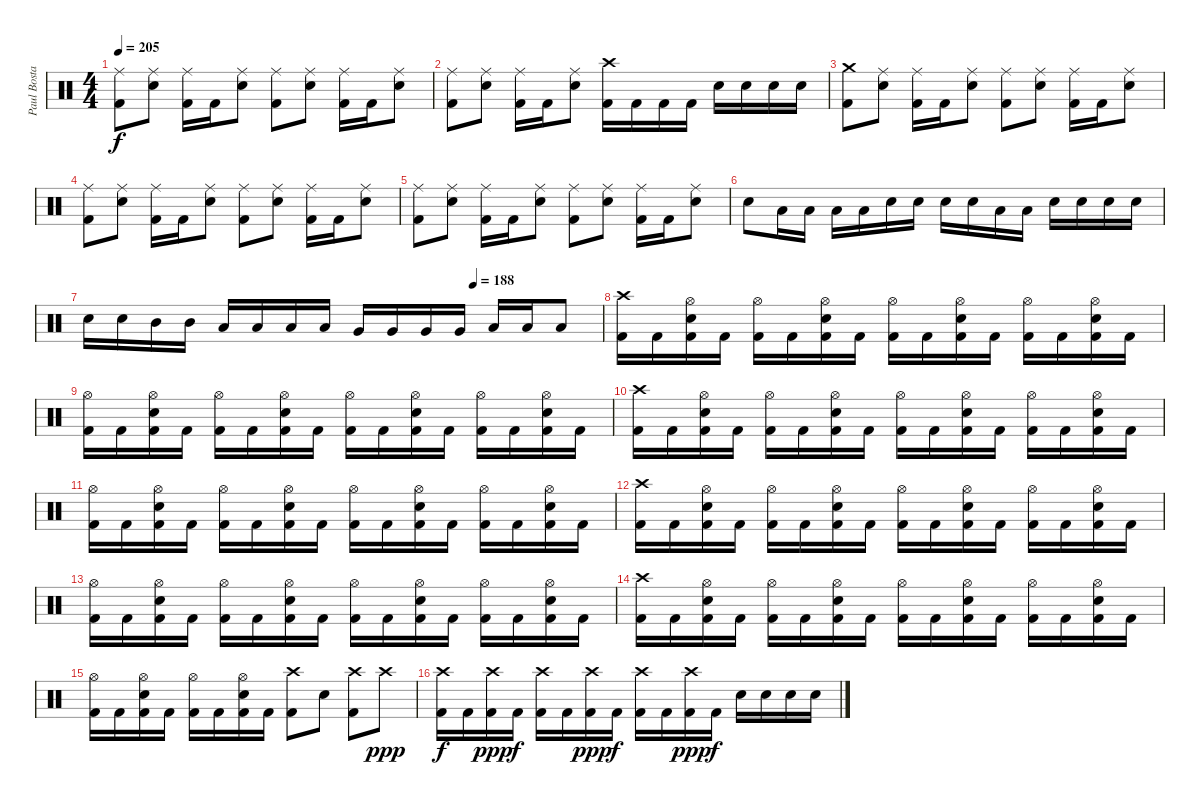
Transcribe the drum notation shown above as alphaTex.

\track ("Paul Bostaph" "Paul Bosta") {instrument percussion}
\staff {score}
\articulation defaults
\ts (4 4)
\tempo 205
\clef neutral
\ks c
("Ride (middle)" "Kick (hit) 2").8{dy f} ("Ride (middle)" "Electric Snare (hit)").8 ("Ride (middle)" "Kick (hit) 2").16 "Kick (hit) 2".16 ("Ride (middle)" "Electric Snare (hit)").8 ("Ride (middle)" "Kick (hit) 2").8 ("Ride (middle)" "Electric Snare (hit)").8 ("Ride (middle)" "Kick (hit) 2").16 "Kick (hit) 2".16 ("Ride (middle)" "Electric Snare (hit)").8 |
("Ride (middle)" "Kick (hit) 2").8 ("Ride (middle)" "Electric Snare (hit)").8 ("Ride (middle)" "Kick (hit) 2").16 "Kick (hit) 2".16 ("Ride (middle)" "Electric Snare (hit)").8 ("Crash high (hit)" "Kick (hit) 2").16 "Kick (hit) 2".16 "Kick (hit) 2".16 "Kick (hit) 2".16 "Electric Snare (hit)".16 "Electric Snare (hit)".16 "Electric Snare (hit)".16 "Electric Snare (hit)".16 |
("Crash medium (hit)" "Kick (hit) 2").8 ("Ride (middle)" "Electric Snare (hit)").8 ("Ride (middle)" "Kick (hit) 2").16 "Kick (hit) 2".16 ("Ride (middle)" "Electric Snare (hit)").8 ("Ride (middle)" "Kick (hit) 2").8 ("Ride (middle)" "Electric Snare (hit)").8 ("Ride (middle)" "Kick (hit) 2").16 "Kick (hit) 2".16 ("Ride (middle)" "Electric Snare (hit)").8 |
("Ride (middle)" "Kick (hit) 2").8 ("Ride (middle)" "Electric Snare (hit)").8 ("Ride (middle)" "Kick (hit) 2").16 "Kick (hit) 2".16 ("Ride (middle)" "Electric Snare (hit)").8 ("Ride (middle)" "Kick (hit) 2").8 ("Ride (middle)" "Electric Snare (hit)").8 ("Ride (middle)" "Kick (hit) 2").16 "Kick (hit) 2".16 ("Ride (middle)" "Electric Snare (hit)").8 |
("Ride (middle)" "Kick (hit) 2").8 ("Ride (middle)" "Electric Snare (hit)").8 ("Ride (middle)" "Kick (hit) 2").16 "Kick (hit) 2".16 ("Ride (middle)" "Electric Snare (hit)").8 ("Ride (middle)" "Kick (hit) 2").8 ("Ride (middle)" "Electric Snare (hit)").8 ("Ride (middle)" "Kick (hit) 2").16 "Kick (hit) 2".16 ("Ride (middle)" "Electric Snare (hit)").8 |
"Electric Snare (hit)".8 "Low Tom (hit)".16 "Low Tom (hit)".16 "Low Tom (hit)".16 "Low Tom (hit)".16 "Electric Snare (hit)".16 "Electric Snare (hit)".16 "Electric Snare (hit)".16 "Electric Snare (hit)".16 "Low Tom (hit)".16 "Low Tom (hit)".16 "Electric Snare (hit)".16 "Electric Snare (hit)".16 "Electric Snare (hit)".16 "Electric Snare (hit)".16 |
\tempo (188 0.75)
"Electric Snare (hit)".16 "Electric Snare (hit)".16 "Mid Tom (hit)".16 "Mid Tom (hit)".16 "Low Tom (hit)".16 "Low Tom (hit)".16 "Low Tom (hit)".16 "Low Tom (hit)".16 "Very Low Tom (hit)".16 "Very Low Tom (hit)".16 "Very Low Tom (hit)".16 "Very Low Tom (hit)".16 "Low Floor Tom (hit)".16 "Low Floor Tom (hit)".16 "Low Floor Tom (hit)".8 |
("Crash high (hit)" "Kick (hit) 2").16 "Kick (hit) 2".16 ("Electric Snare (hit)" "Hi-Hat (open)" "Kick (hit) 2").16 "Kick (hit) 2".16 ("Hi-Hat (open)" "Kick (hit) 2").16 "Kick (hit) 2".16 ("Electric Snare (hit)" "Hi-Hat (open)" "Kick (hit) 2").16 "Kick (hit) 2".16 ("Hi-Hat (open)" "Kick (hit) 2").16 "Kick (hit) 2".16 ("Electric Snare (hit)" "Hi-Hat (open)" "Kick (hit) 2").16 "Kick (hit) 2".16 ("Hi-Hat (open)" "Kick (hit) 2").16 "Kick (hit) 2".16 ("Electric Snare (hit)" "Hi-Hat (open)" "Kick (hit) 2").16 "Kick (hit) 2".16 |
("Hi-Hat (open)" "Kick (hit) 2").16 "Kick (hit) 2".16 ("Electric Snare (hit)" "Hi-Hat (open)" "Kick (hit) 2").16 "Kick (hit) 2".16 ("Hi-Hat (open)" "Kick (hit) 2").16 "Kick (hit) 2".16 ("Electric Snare (hit)" "Hi-Hat (open)" "Kick (hit) 2").16 "Kick (hit) 2".16 ("Hi-Hat (open)" "Kick (hit) 2").16 "Kick (hit) 2".16 ("Electric Snare (hit)" "Hi-Hat (open)" "Kick (hit) 2").16 "Kick (hit) 2".16 ("Hi-Hat (open)" "Kick (hit) 2").16 "Kick (hit) 2".16 ("Electric Snare (hit)" "Hi-Hat (open)" "Kick (hit) 2").16 "Kick (hit) 2".16 |
("Crash high (hit)" "Kick (hit) 2").16 "Kick (hit) 2".16 ("Electric Snare (hit)" "Hi-Hat (open)" "Kick (hit) 2").16 "Kick (hit) 2".16 ("Hi-Hat (open)" "Kick (hit) 2").16 "Kick (hit) 2".16 ("Electric Snare (hit)" "Hi-Hat (open)" "Kick (hit) 2").16 "Kick (hit) 2".16 ("Hi-Hat (open)" "Kick (hit) 2").16 "Kick (hit) 2".16 ("Electric Snare (hit)" "Hi-Hat (open)" "Kick (hit) 2").16 "Kick (hit) 2".16 ("Hi-Hat (open)" "Kick (hit) 2").16 "Kick (hit) 2".16 ("Electric Snare (hit)" "Hi-Hat (open)" "Kick (hit) 2").16 "Kick (hit) 2".16 |
("Hi-Hat (open)" "Kick (hit) 2").16 "Kick (hit) 2".16 ("Electric Snare (hit)" "Hi-Hat (open)" "Kick (hit) 2").16 "Kick (hit) 2".16 ("Hi-Hat (open)" "Kick (hit) 2").16 "Kick (hit) 2".16 ("Electric Snare (hit)" "Hi-Hat (open)" "Kick (hit) 2").16 "Kick (hit) 2".16 ("Hi-Hat (open)" "Kick (hit) 2").16 "Kick (hit) 2".16 ("Electric Snare (hit)" "Hi-Hat (open)" "Kick (hit) 2").16 "Kick (hit) 2".16 ("Hi-Hat (open)" "Kick (hit) 2").16 "Kick (hit) 2".16 ("Electric Snare (hit)" "Hi-Hat (open)" "Kick (hit) 2").16 "Kick (hit) 2".16 |
("Crash high (hit)" "Kick (hit) 2").16 "Kick (hit) 2".16 ("Electric Snare (hit)" "Hi-Hat (open)" "Kick (hit) 2").16 "Kick (hit) 2".16 ("Hi-Hat (open)" "Kick (hit) 2").16 "Kick (hit) 2".16 ("Electric Snare (hit)" "Hi-Hat (open)" "Kick (hit) 2").16 "Kick (hit) 2".16 ("Hi-Hat (open)" "Kick (hit) 2").16 "Kick (hit) 2".16 ("Electric Snare (hit)" "Hi-Hat (open)" "Kick (hit) 2").16 "Kick (hit) 2".16 ("Hi-Hat (open)" "Kick (hit) 2").16 "Kick (hit) 2".16 ("Electric Snare (hit)" "Hi-Hat (open)" "Kick (hit) 2").16 "Kick (hit) 2".16 |
("Hi-Hat (open)" "Kick (hit) 2").16 "Kick (hit) 2".16 ("Electric Snare (hit)" "Hi-Hat (open)" "Kick (hit) 2").16 "Kick (hit) 2".16 ("Hi-Hat (open)" "Kick (hit) 2").16 "Kick (hit) 2".16 ("Electric Snare (hit)" "Hi-Hat (open)" "Kick (hit) 2").16 "Kick (hit) 2".16 ("Hi-Hat (open)" "Kick (hit) 2").16 "Kick (hit) 2".16 ("Electric Snare (hit)" "Hi-Hat (open)" "Kick (hit) 2").16 "Kick (hit) 2".16 ("Hi-Hat (open)" "Kick (hit) 2").16 "Kick (hit) 2".16 ("Electric Snare (hit)" "Hi-Hat (open)" "Kick (hit) 2").16 "Kick (hit) 2".16 |
("Crash high (hit)" "Kick (hit) 2").16 "Kick (hit) 2".16 ("Electric Snare (hit)" "Hi-Hat (open)" "Kick (hit) 2").16 "Kick (hit) 2".16 ("Hi-Hat (open)" "Kick (hit) 2").16 "Kick (hit) 2".16 ("Electric Snare (hit)" "Hi-Hat (open)" "Kick (hit) 2").16 "Kick (hit) 2".16 ("Hi-Hat (open)" "Kick (hit) 2").16 "Kick (hit) 2".16 ("Electric Snare (hit)" "Hi-Hat (open)" "Kick (hit) 2").16 "Kick (hit) 2".16 ("Hi-Hat (open)" "Kick (hit) 2").16 "Kick (hit) 2".16 ("Electric Snare (hit)" "Hi-Hat (open)" "Kick (hit) 2").16 "Kick (hit) 2".16 |
("Hi-Hat (open)" "Kick (hit) 2").16 "Kick (hit) 2".16 ("Electric Snare (hit)" "Hi-Hat (open)" "Kick (hit) 2").16 "Kick (hit) 2".16 ("Hi-Hat (open)" "Kick (hit) 2").16 "Kick (hit) 2".16 ("Electric Snare (hit)" "Hi-Hat (open)" "Kick (hit) 2").16 "Kick (hit) 2".16 ("Crash high (hit)" "Kick (hit) 2").8 "Electric Snare (hit)".8 ("Crash high (hit)" "Kick (hit) 2").8 "Crash high (hit)".8{dy ppp} |
("Crash high (hit)" "Kick (hit) 2").16{dy f} "Kick (hit) 2".16 ("Crash high (hit)" "Kick (hit) 2").16{dy ppp} "Kick (hit) 2".16{dy f} ("Crash high (hit)" "Kick (hit) 2").16 "Kick (hit) 2".16 ("Crash high (hit)" "Kick (hit) 2").16{dy ppp} "Kick (hit) 2".16{dy f} ("Crash high (hit)" "Kick (hit) 2").16 "Kick (hit) 2".16 ("Crash high (hit)" "Kick (hit) 2").16{dy ppp} "Kick (hit) 2".16{dy f} "Electric Snare (hit)".16 "Electric Snare (hit)".16 "Electric Snare (hit)".16 "Electric Snare (hit)".16
